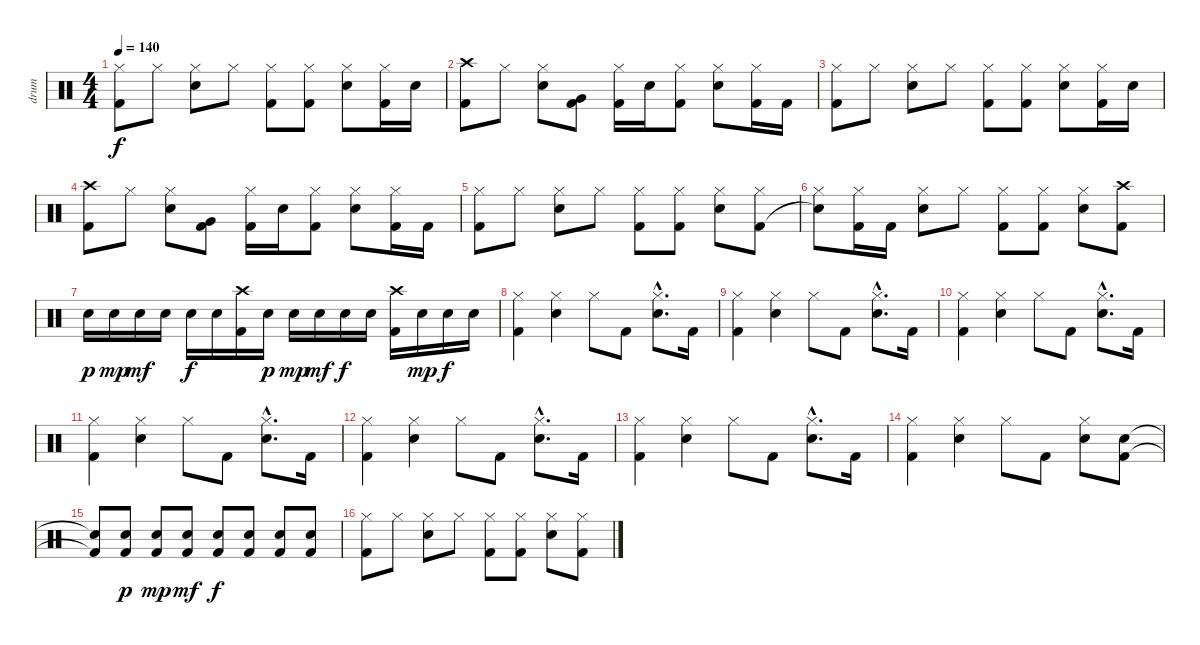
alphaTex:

\track ("drum" "drum") {instrument percussion}
\staff {score}
\articulation defaults
\ts (4 4)
\tempo 140
\clef neutral
\ks c
("Hi-Hat (closed)" "Kick (hit) 2").8{dy f} "Hi-Hat (closed)".8 ("Hi-Hat (closed)" "Snare (hit) 2").8 "Hi-Hat (closed)".8 ("Hi-Hat (closed)" "Kick (hit) 2").8 ("Hi-Hat (closed)" "Kick (hit) 2").8 ("Hi-Hat (closed)" "Snare (hit) 2").8 ("Hi-Hat (closed)" "Kick (hit) 2").16 "Snare (hit) 2".16 |
("Crash high (hit)" "Kick (hit) 2").8 "Hi-Hat (closed)".8 ("Hi-Hat (closed)" "Snare (hit) 2").8 ("Very Low Tom (hit)" "Kick (hit) 2").8 ("Hi-Hat (closed)" "Kick (hit) 2").16 "Snare (hit) 2".16 ("Hi-Hat (closed)" "Kick (hit) 2").8 ("Hi-Hat (closed)" "Snare (hit) 2").8 ("Hi-Hat (closed)" "Kick (hit) 2").16 "Kick (hit) 2".16 |
("Hi-Hat (closed)" "Kick (hit) 2").8 "Hi-Hat (closed)".8 ("Hi-Hat (closed)" "Snare (hit) 2").8 "Hi-Hat (closed)".8 ("Hi-Hat (closed)" "Kick (hit) 2").8 ("Hi-Hat (closed)" "Kick (hit) 2").8 ("Hi-Hat (closed)" "Snare (hit) 2").8 ("Hi-Hat (closed)" "Kick (hit) 2").16 "Snare (hit) 2".16 |
("Crash high (hit)" "Kick (hit) 2").8 "Hi-Hat (closed)".8 ("Hi-Hat (closed)" "Snare (hit) 2").8 ("Very Low Tom (hit)" "Kick (hit) 2").8 ("Hi-Hat (closed)" "Kick (hit) 2").16 "Snare (hit) 2".16 ("Hi-Hat (closed)" "Kick (hit) 2").8 ("Hi-Hat (closed)" "Snare (hit) 2").8 ("Hi-Hat (closed)" "Kick (hit) 2").16 "Kick (hit) 2".16 |
("Hi-Hat (closed)" "Kick (hit) 2").8 "Hi-Hat (closed)".8 ("Hi-Hat (closed)" "Snare (hit) 2").8 "Hi-Hat (closed)".8 ("Hi-Hat (closed)" "Kick (hit) 2").8 ("Hi-Hat (closed)" "Kick (hit) 2").8 ("Hi-Hat (closed)" "Snare (hit) 2").8 ("Hi-Hat (closed)" "Kick (hit) 2").8 |
("Hi-Hat (closed)" "Snare (hit)"{t}).8 ("Hi-Hat (closed)" "Kick (hit) 2").16 "Kick (hit) 2".16 ("Hi-Hat (closed)" "Snare (hit) 2").8 "Hi-Hat (closed)".8 ("Hi-Hat (closed)" "Kick (hit) 2").8 ("Hi-Hat (closed)" "Kick (hit) 2").8 ("Hi-Hat (closed)" "Snare (hit) 2").8 ("Crash high (hit)" "Kick (hit) 2").8 |
"Snare (hit) 2".16{dy p} "Snare (hit) 2".16{dy mp} "Snare (hit) 2".16{dy mf} "Snare (hit) 2".16 "Snare (hit) 2".16{dy f} "Snare (hit) 2".16 ("Crash high (hit)" "Kick (hit) 2").16 "Snare (hit) 2".16{dy p} "Snare (hit) 2".16{dy mp} "Snare (hit) 2".16{dy mf} "Snare (hit) 2".16{dy f} "Snare (hit) 2".16 ("Crash high (hit)" "Kick (hit) 2").16 "Snare (hit) 2".16{dy mp} "Snare (hit) 2".16{dy f} "Snare (hit) 2".16 |
("Hi-Hat (closed)" "Kick (hit) 2").4 ("Hi-Hat (closed)" "Snare (hit) 2").4 "Hi-Hat (closed)".8 "Kick (hit) 2".8 ("Hi-Hat (closed)"{hac} "Snare (hit) 2"{hac}).8{d} "Kick (hit) 2".16 |
("Hi-Hat (closed)" "Kick (hit) 2").4 ("Hi-Hat (closed)" "Snare (hit) 2").4 "Hi-Hat (closed)".8 "Kick (hit) 2".8 ("Hi-Hat (closed)"{hac} "Snare (hit) 2"{hac}).8{d} "Kick (hit) 2".16 |
("Hi-Hat (closed)" "Kick (hit) 2").4 ("Hi-Hat (closed)" "Snare (hit) 2").4 "Hi-Hat (closed)".8 "Kick (hit) 2".8 ("Hi-Hat (closed)"{hac} "Snare (hit) 2"{hac}).8{d} "Kick (hit) 2".16 |
("Hi-Hat (closed)" "Kick (hit) 2").4 ("Hi-Hat (closed)" "Snare (hit) 2").4 "Hi-Hat (closed)".8 "Kick (hit) 2".8 ("Hi-Hat (closed)"{hac} "Snare (hit) 2"{hac}).8{d} "Kick (hit) 2".16 |
("Hi-Hat (closed)" "Kick (hit) 2").4 ("Hi-Hat (closed)" "Snare (hit) 2").4 "Hi-Hat (closed)".8 "Kick (hit) 2".8 ("Hi-Hat (closed)"{hac} "Snare (hit) 2"{hac}).8{d} "Kick (hit) 2".16 |
("Hi-Hat (closed)" "Kick (hit) 2").4 ("Hi-Hat (closed)" "Snare (hit) 2").4 "Hi-Hat (closed)".8 "Kick (hit) 2".8 ("Hi-Hat (closed)"{hac} "Snare (hit) 2"{hac}).8{d} "Kick (hit) 2".16 |
("Hi-Hat (closed)" "Kick (hit) 2").4 ("Hi-Hat (closed)" "Snare (hit) 2").4 "Hi-Hat (closed)".8 "Kick (hit) 2".8 ("Hi-Hat (closed)" "Snare (hit) 2").8 ("Snare (hit) 2" "Kick (hit) 2").8 |
("Snare (hit)"{t} "Kick (hit) 2"{t}).8 ("Snare (hit) 2" "Kick (hit) 2").8{dy p} ("Snare (hit) 2" "Kick (hit) 2").8{dy mp} ("Snare (hit) 2" "Kick (hit) 2").8{dy mf} ("Snare (hit) 2" "Kick (hit) 2").8{dy f} ("Snare (hit) 2" "Kick (hit) 2").8 ("Snare (hit) 2" "Kick (hit) 2").8 ("Snare (hit) 2" "Kick (hit) 2").8 |
("Hi-Hat (closed)" "Kick (hit) 2").8 "Hi-Hat (closed)".8 ("Hi-Hat (closed)" "Snare (hit) 2").8 "Hi-Hat (closed)".8 ("Hi-Hat (closed)" "Kick (hit) 2").8 ("Hi-Hat (closed)" "Kick (hit) 2").8 ("Hi-Hat (closed)" "Snare (hit) 2").8 ("Hi-Hat (closed)" "Kick (hit) 2").8
